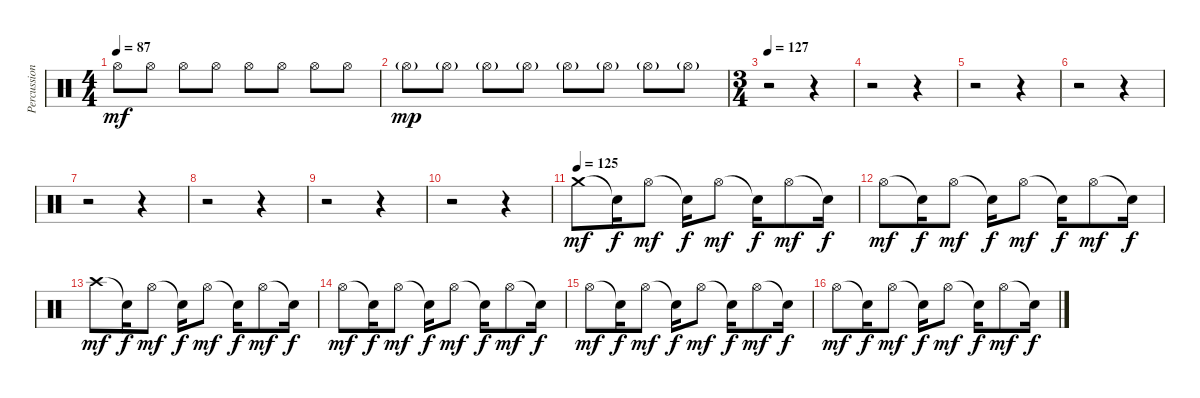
\track ("Percussion2" "Percussion") {instrument percussion}
\staff {score}
\articulation defaults
\ts (4 4)
\tempo 87
\clef neutral
\ks c "Hi-Hat (open)".8{dy mf} "Hi-Hat (open)".8 "Hi-Hat (open)".8 "Hi-Hat (open)".8 "Hi-Hat (open)".8 "Hi-Hat (open)".8 "Hi-Hat (open)".8 "Hi-Hat (open)".8
|
"Hi-Hat (open)"{g}.8{dy mp} "Hi-Hat (open)"{g}.8 "Hi-Hat (open)"{g}.8 "Hi-Hat (open)"{g}.8 "Hi-Hat (open)"{g}.8 "Hi-Hat (open)"{g}.8 "Hi-Hat (open)"{g}.8 "Hi-Hat (open)"{g}.8 |
\ts (3 4)
\tempo 127
r.2 r.4 |
r.2 r.4 |
r.2 r.4 |
r.2 r.4 |
r.2 r.4 |
r.2 r.4 |
r.2 r.4 |
r.2 r.4 |
\tempo (125)
"Crash medium (hit)".8{dy mf} "Snare (hit)"{t}.16{dy f} "Hi-Hat (open)".8{dy mf} "Snare (hit)"{t}.16{dy f} "Hi-Hat (open)".8{dy mf} "Snare (hit)"{t}.16{dy f} "Hi-Hat (open)".8{dy mf} "Snare (hit)"{t}.16{dy f} |
"Hi-Hat (open)".8{dy mf} "Snare (hit)"{t}.16{dy f} "Hi-Hat (open)".8{dy mf} "Snare (hit)"{t}.16{dy f} "Hi-Hat (open)".8{dy mf} "Snare (hit)"{t}.16{dy f} "Hi-Hat (open)".8{dy mf} "Snare (hit)"{t}.16{dy f} |
"Crash high (hit)".8{dy mf} "Snare (hit)"{t}.16{dy f} "Hi-Hat (open)".8{dy mf} "Snare (hit)"{t}.16{dy f} "Hi-Hat (open)".8{dy mf} "Snare (hit)"{t}.16{dy f} "Hi-Hat (open)".8{dy mf} "Snare (hit)"{t}.16{dy f} |
"Hi-Hat (open)".8{dy mf} "Snare (hit)"{t}.16{dy f} "Hi-Hat (open)".8{dy mf} "Snare (hit)"{t}.16{dy f} "Hi-Hat (open)".8{dy mf} "Snare (hit)"{t}.16{dy f} "Hi-Hat (open)".8{dy mf} "Snare (hit)"{t}.16{dy f} |
"Hi-Hat (open)".8{dy mf} "Snare (hit)"{t}.16{dy f} "Hi-Hat (open)".8{dy mf} "Snare (hit)"{t}.16{dy f} "Hi-Hat (open)".8{dy mf} "Snare (hit)"{t}.16{dy f} "Hi-Hat (open)".8{dy mf} "Snare (hit)"{t}.16{dy f} |
"Hi-Hat (open)".8{dy mf} "Snare (hit)"{t}.16{dy f} "Hi-Hat (open)".8{dy mf} "Snare (hit)"{t}.16{dy f} "Hi-Hat (open)".8{dy mf} "Snare (hit)"{t}.16{dy f} "Hi-Hat (open)".8{dy mf} "Snare (hit)"{t}.16{dy f}
